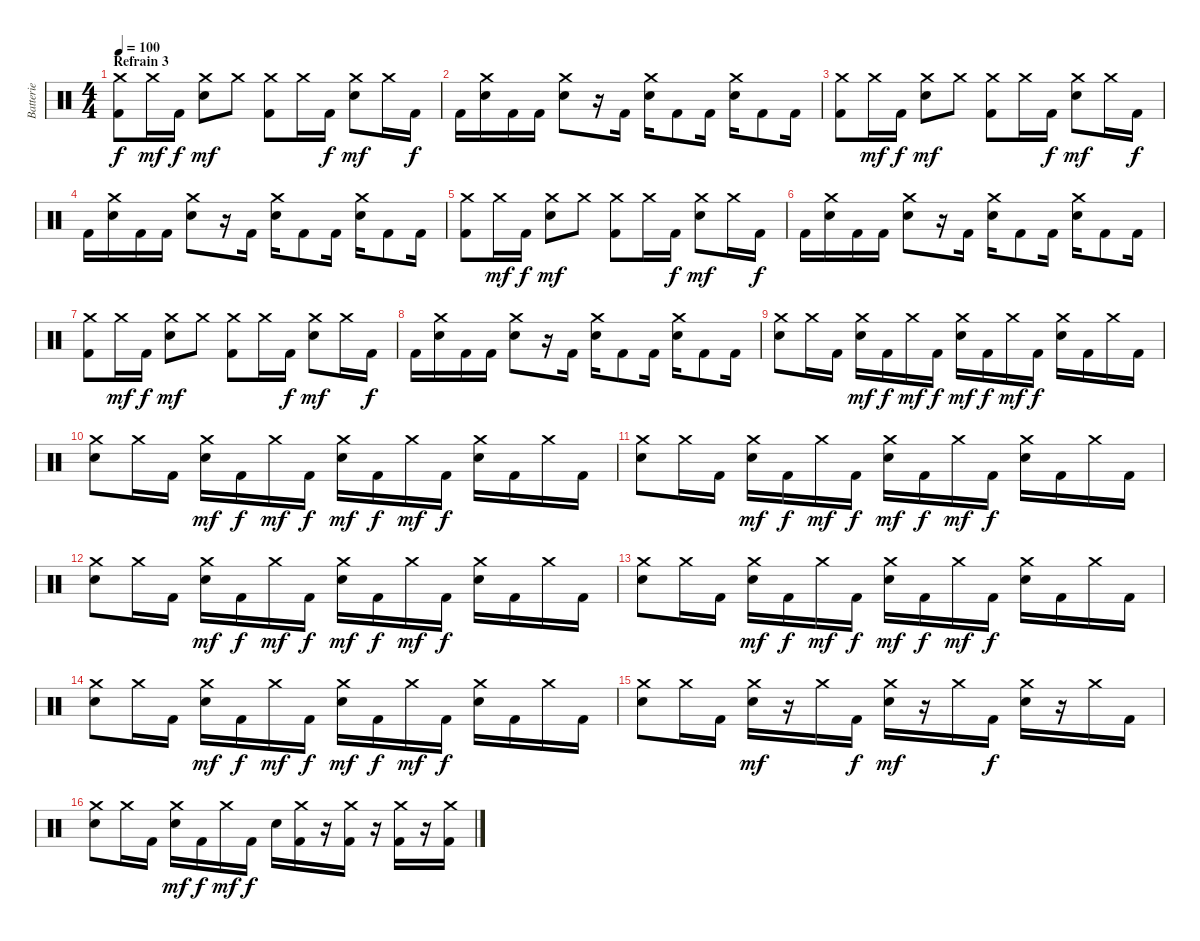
\track ("Batterie" "Batterie") {instrument percussion}
\staff {score}
\articulation defaults
\ts (4 4)
\section ("" "Refrain 3")
\tempo 100
\clef neutral
\ks c
("Crash medium (hit)" "Kick (hit) 2").8{dy f} "Crash medium (hit)".16{dy mf} "Kick (hit) 2".16{dy f} ("Crash medium (hit)" "Electric Snare (hit)").8{dy mf} "Crash medium (hit)".8 ("Crash medium (hit)" "Kick (hit) 2").8 "Crash medium (hit)".16 "Kick (hit) 2".16{dy f} ("Crash medium (hit)" "Electric Snare (hit)").8{dy mf} "Crash medium (hit)".16 "Kick (hit) 2".16{dy f} |
"Kick (hit) 2".16 ("Crash medium (hit)" "Electric Snare (hit)").16 "Kick (hit) 2".16 "Kick (hit) 2".16 ("Crash medium (hit)" "Electric Snare (hit)").8 r.16 "Kick (hit) 2".16 ("Crash medium (hit)" "Electric Snare (hit)").16 "Kick (hit) 2".8 "Kick (hit) 2".16 ("Crash medium (hit)" "Electric Snare (hit)").16 "Kick (hit) 2".8 "Kick (hit) 2".16 |
("Crash medium (hit)" "Kick (hit) 2").8 "Crash medium (hit)".16{dy mf} "Kick (hit) 2".16{dy f} ("Crash medium (hit)" "Electric Snare (hit)").8{dy mf} "Crash medium (hit)".8 ("Crash medium (hit)" "Kick (hit) 2").8 "Crash medium (hit)".16 "Kick (hit) 2".16{dy f} ("Crash medium (hit)" "Electric Snare (hit)").8{dy mf} "Crash medium (hit)".16 "Kick (hit) 2".16{dy f} |
"Kick (hit) 2".16 ("Crash medium (hit)" "Electric Snare (hit)").16 "Kick (hit) 2".16 "Kick (hit) 2".16 ("Crash medium (hit)" "Electric Snare (hit)").8 r.16 "Kick (hit) 2".16 ("Crash medium (hit)" "Electric Snare (hit)").16 "Kick (hit) 2".8 "Kick (hit) 2".16 ("Crash medium (hit)" "Electric Snare (hit)").16 "Kick (hit) 2".8 "Kick (hit) 2".16 |
("Crash medium (hit)" "Kick (hit) 2").8 "Crash medium (hit)".16{dy mf} "Kick (hit) 2".16{dy f} ("Crash medium (hit)" "Electric Snare (hit)").8{dy mf} "Crash medium (hit)".8 ("Crash medium (hit)" "Kick (hit) 2").8 "Crash medium (hit)".16 "Kick (hit) 2".16{dy f} ("Crash medium (hit)" "Electric Snare (hit)").8{dy mf} "Crash medium (hit)".16 "Kick (hit) 2".16{dy f} |
"Kick (hit) 2".16 ("Crash medium (hit)" "Electric Snare (hit)").16 "Kick (hit) 2".16 "Kick (hit) 2".16 ("Crash medium (hit)" "Electric Snare (hit)").8 r.16 "Kick (hit) 2".16 ("Crash medium (hit)" "Electric Snare (hit)").16 "Kick (hit) 2".8 "Kick (hit) 2".16 ("Crash medium (hit)" "Electric Snare (hit)").16 "Kick (hit) 2".8 "Kick (hit) 2".16 |
("Crash medium (hit)" "Kick (hit) 2").8 "Crash medium (hit)".16{dy mf} "Kick (hit) 2".16{dy f} ("Crash medium (hit)" "Electric Snare (hit)").8{dy mf} "Crash medium (hit)".8 ("Crash medium (hit)" "Kick (hit) 2").8 "Crash medium (hit)".16 "Kick (hit) 2".16{dy f} ("Crash medium (hit)" "Electric Snare (hit)").8{dy mf} "Crash medium (hit)".16 "Kick (hit) 2".16{dy f} |
"Kick (hit) 2".16 ("Crash medium (hit)" "Electric Snare (hit)").16 "Kick (hit) 2".16 "Kick (hit) 2".16 ("Crash medium (hit)" "Electric Snare (hit)").8 r.16 "Kick (hit) 2".16 ("Crash medium (hit)" "Electric Snare (hit)").16 "Kick (hit) 2".8 "Kick (hit) 2".16 ("Crash medium (hit)" "Electric Snare (hit)").16 "Kick (hit) 2".8 "Kick (hit) 2".16 |
("Crash medium (hit)" "Electric Snare (hit)").8 "Crash medium (hit)".16 "Kick (hit) 2".16 ("Crash medium (hit)" "Electric Snare (hit)").16{dy mf} "Kick (hit) 2".16{dy f} "Crash medium (hit)".16{dy mf} "Kick (hit) 2".16{dy f} ("Crash medium (hit)" "Electric Snare (hit)").16{dy mf} "Kick (hit) 2".16{dy f} "Crash medium (hit)".16{dy mf} "Kick (hit) 2".16{dy f} ("Crash medium (hit)" "Electric Snare (hit)").16 "Kick (hit) 2".16 "Crash medium (hit)".16 "Kick (hit) 2".16 |
("Crash medium (hit)" "Electric Snare (hit)").8 "Crash medium (hit)".16 "Kick (hit) 2".16 ("Crash medium (hit)" "Electric Snare (hit)").16{dy mf} "Kick (hit) 2".16{dy f} "Crash medium (hit)".16{dy mf} "Kick (hit) 2".16{dy f} ("Crash medium (hit)" "Electric Snare (hit)").16{dy mf} "Kick (hit) 2".16{dy f} "Crash medium (hit)".16{dy mf} "Kick (hit) 2".16{dy f} ("Crash medium (hit)" "Electric Snare (hit)").16 "Kick (hit) 2".16 "Crash medium (hit)".16 "Kick (hit) 2".16 |
("Crash medium (hit)" "Electric Snare (hit)").8 "Crash medium (hit)".16 "Kick (hit) 2".16 ("Crash medium (hit)" "Electric Snare (hit)").16{dy mf} "Kick (hit) 2".16{dy f} "Crash medium (hit)".16{dy mf} "Kick (hit) 2".16{dy f} ("Crash medium (hit)" "Electric Snare (hit)").16{dy mf} "Kick (hit) 2".16{dy f} "Crash medium (hit)".16{dy mf} "Kick (hit) 2".16{dy f} ("Crash medium (hit)" "Electric Snare (hit)").16 "Kick (hit) 2".16 "Crash medium (hit)".16 "Kick (hit) 2".16 |
("Crash medium (hit)" "Electric Snare (hit)").8 "Crash medium (hit)".16 "Kick (hit) 2".16 ("Crash medium (hit)" "Electric Snare (hit)").16{dy mf} "Kick (hit) 2".16{dy f} "Crash medium (hit)".16{dy mf} "Kick (hit) 2".16{dy f} ("Crash medium (hit)" "Electric Snare (hit)").16{dy mf} "Kick (hit) 2".16{dy f} "Crash medium (hit)".16{dy mf} "Kick (hit) 2".16{dy f} ("Crash medium (hit)" "Electric Snare (hit)").16 "Kick (hit) 2".16 "Crash medium (hit)".16 "Kick (hit) 2".16 |
("Crash medium (hit)" "Electric Snare (hit)").8 "Crash medium (hit)".16 "Kick (hit) 2".16 ("Crash medium (hit)" "Electric Snare (hit)").16{dy mf} "Kick (hit) 2".16{dy f} "Crash medium (hit)".16{dy mf} "Kick (hit) 2".16{dy f} ("Crash medium (hit)" "Electric Snare (hit)").16{dy mf} "Kick (hit) 2".16{dy f} "Crash medium (hit)".16{dy mf} "Kick (hit) 2".16{dy f} ("Crash medium (hit)" "Electric Snare (hit)").16 "Kick (hit) 2".16 "Crash medium (hit)".16 "Kick (hit) 2".16 |
("Crash medium (hit)" "Electric Snare (hit)").8 "Crash medium (hit)".16 "Kick (hit) 2".16 ("Crash medium (hit)" "Electric Snare (hit)").16{dy mf} "Kick (hit) 2".16{dy f} "Crash medium (hit)".16{dy mf} "Kick (hit) 2".16{dy f} ("Crash medium (hit)" "Electric Snare (hit)").16{dy mf} "Kick (hit) 2".16{dy f} "Crash medium (hit)".16{dy mf} "Kick (hit) 2".16{dy f} ("Crash medium (hit)" "Electric Snare (hit)").16 "Kick (hit) 2".16 "Crash medium (hit)".16 "Kick (hit) 2".16 |
("Crash medium (hit)" "Electric Snare (hit)").8 "Crash medium (hit)".16 "Kick (hit) 2".16 ("Crash medium (hit)" "Electric Snare (hit)").16{dy mf} r.16 "Crash medium (hit)".16 "Kick (hit) 2".16{dy f} ("Crash medium (hit)" "Electric Snare (hit)").16{dy mf} r.16 "Crash medium (hit)".16 "Kick (hit) 2".16{dy f} ("Crash medium (hit)" "Electric Snare (hit)").16 r.16 "Crash medium (hit)".16 "Kick (hit) 2".16 |
("Crash medium (hit)" "Electric Snare (hit)").8 "Crash medium (hit)".16 "Kick (hit) 2".16 ("Crash medium (hit)" "Electric Snare (hit)").16{dy mf} "Kick (hit) 2".16{dy f} "Crash medium (hit)".16{dy mf} "Kick (hit) 2".16{dy f} "Electric Snare (hit)".16 ("Crash medium (hit)" "Kick (hit) 2").16 r.16 ("Crash medium (hit)" "Kick (hit) 2").16 r.16 ("Crash medium (hit)" "Kick (hit) 2").16 r.16 ("Crash medium (hit)" "Kick (hit) 2").16
